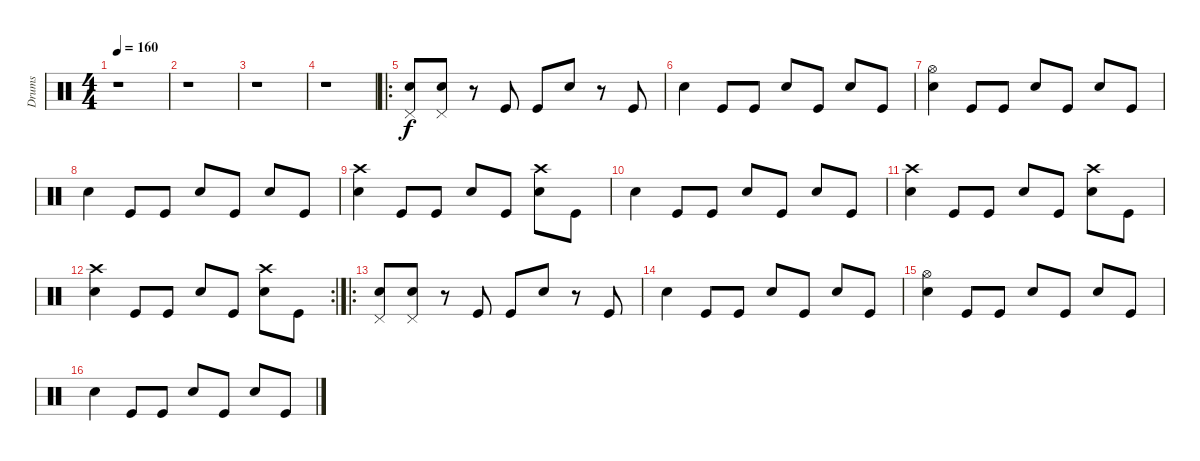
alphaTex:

\track ("Drums" "Drums") {instrument percussion}
\staff {score}
\articulation defaults
\ts (4 4)
\tempo 160
\clef neutral
\ks c
r.1{dy f} |
r.1 |
r.1 |
r.1 |
\ro
("Pedal Hi-Hat (hit)" "Snare (hit) 2").8 ("Pedal Hi-Hat (hit)" "Snare (hit) 2").8 r.8 "Kick (hit)".8 "Kick (hit)".8 "Snare (hit) 2".8 r.8 "Kick (hit)".8 |
"Snare (hit) 2".4 "Kick (hit)".8 "Kick (hit)".8 "Snare (hit) 2".8 "Kick (hit)".8 "Snare (hit) 2".8 "Kick (hit)".8 |
("Hi-Hat (open)" "Snare (hit) 2").4 "Kick (hit)".8 "Kick (hit)".8 "Snare (hit) 2".8 "Kick (hit)".8 "Snare (hit) 2".8 "Kick (hit)".8 |
"Snare (hit) 2".4 "Kick (hit)".8 "Kick (hit)".8 "Snare (hit) 2".8 "Kick (hit)".8 "Snare (hit) 2".8 "Kick (hit)".8 |
("Crash high (hit)" "Snare (hit) 2").4 "Kick (hit)".8 "Kick (hit)".8 "Snare (hit) 2".8 "Kick (hit)".8 ("Crash high (hit)" "Snare (hit) 2").8 "Kick (hit)".8 |
"Snare (hit) 2".4 "Kick (hit)".8 "Kick (hit)".8 "Snare (hit) 2".8 "Kick (hit)".8 "Snare (hit) 2".8 "Kick (hit)".8 |
("Crash high (hit)" "Snare (hit) 2").4 "Kick (hit)".8 "Kick (hit)".8 "Snare (hit) 2".8 "Kick (hit)".8 ("Crash high (hit)" "Snare (hit) 2").8 "Kick (hit)".8 |
\rc 2
("Crash high (hit)" "Snare (hit) 2").4 "Kick (hit)".8 "Kick (hit)".8 "Snare (hit) 2".8 "Kick (hit)".8 ("Crash high (hit)" "Snare (hit) 2").8 "Kick (hit)".8 |
\ro
("Pedal Hi-Hat (hit)" "Snare (hit) 2").8 ("Pedal Hi-Hat (hit)" "Snare (hit) 2").8 r.8 "Kick (hit)".8 "Kick (hit)".8 "Snare (hit) 2".8 r.8 "Kick (hit)".8 |
"Snare (hit) 2".4 "Kick (hit)".8 "Kick (hit)".8 "Snare (hit) 2".8 "Kick (hit)".8 "Snare (hit) 2".8 "Kick (hit)".8 |
("Hi-Hat (open)" "Snare (hit) 2").4 "Kick (hit)".8 "Kick (hit)".8 "Snare (hit) 2".8 "Kick (hit)".8 "Snare (hit) 2".8 "Kick (hit)".8 |
"Snare (hit) 2".4 "Kick (hit)".8 "Kick (hit)".8 "Snare (hit) 2".8 "Kick (hit)".8 "Snare (hit) 2".8 "Kick (hit)".8
